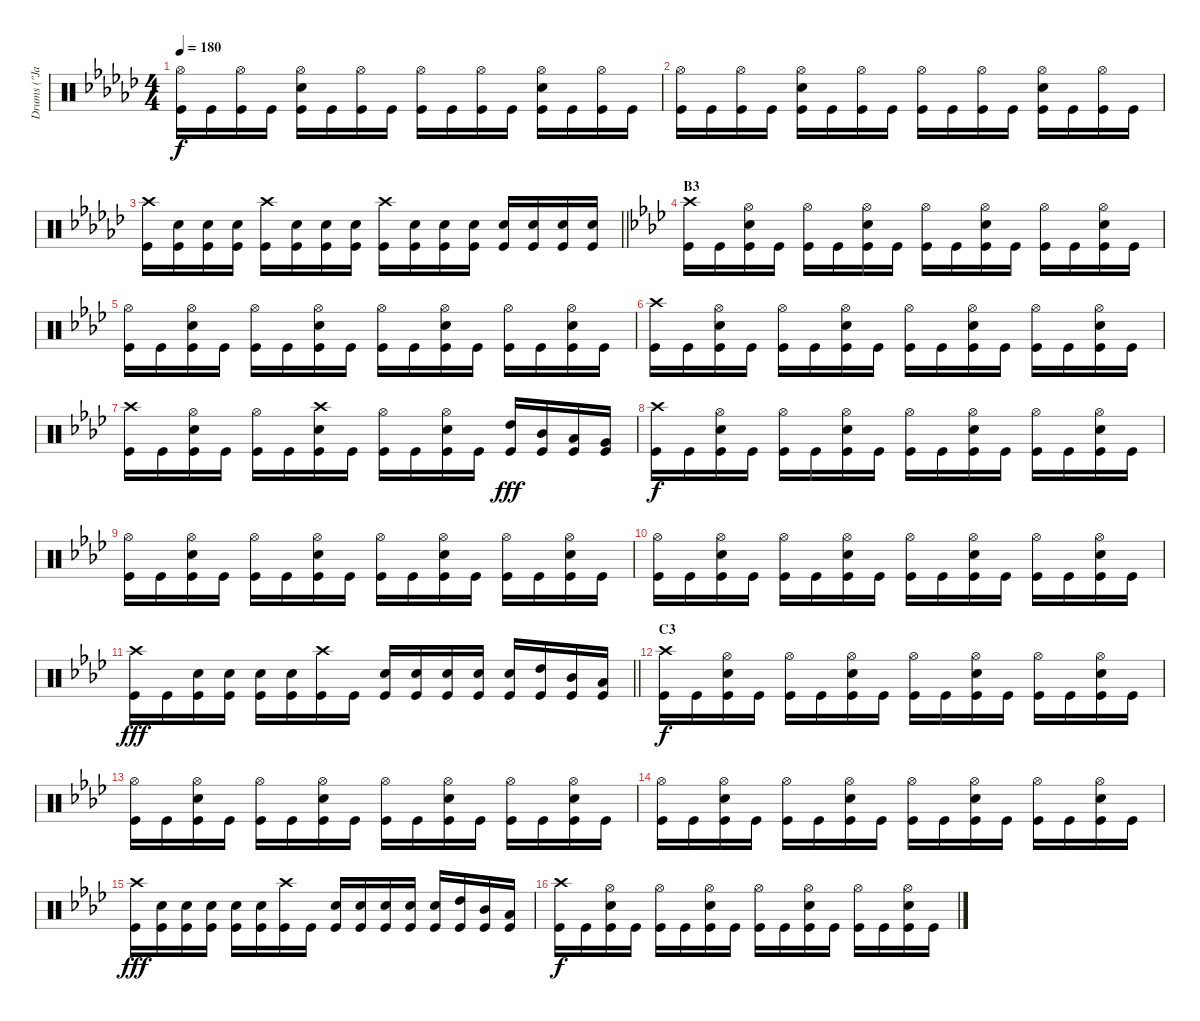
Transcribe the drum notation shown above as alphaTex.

\track ("Drums (\"Jane\")" "Drums (\"Ja") {instrument percussion}
\staff {score}
\articulation defaults
\ts (4 4)
\tempo 180
\clef neutral
\ks gb
("Hi-Hat (open)" "Kick (hit)").16{dy f} "Kick (hit)".16 ("Hi-Hat (open)" "Kick (hit)").16 "Kick (hit)".16 ("Hi-Hat (open)" "Snare (hit) 2" "Kick (hit)").16 "Kick (hit)".16 ("Hi-Hat (open)" "Kick (hit)").16 "Kick (hit)".16 ("Hi-Hat (open)" "Kick (hit)").16 "Kick (hit)".16 ("Hi-Hat (open)" "Kick (hit)").16 "Kick (hit)".16 ("Hi-Hat (open)" "Snare (hit) 2" "Kick (hit)").16 "Kick (hit)".16 ("Hi-Hat (open)" "Kick (hit)").16 "Kick (hit)".16 |
("Hi-Hat (open)" "Kick (hit)").16 "Kick (hit)".16 ("Hi-Hat (open)" "Kick (hit)").16 "Kick (hit)".16 ("Hi-Hat (open)" "Snare (hit) 2" "Kick (hit)").16 "Kick (hit)".16 ("Hi-Hat (open)" "Kick (hit)").16 "Kick (hit)".16 ("Hi-Hat (open)" "Kick (hit)").16 "Kick (hit)".16 ("Hi-Hat (open)" "Kick (hit)").16 "Kick (hit)".16 ("Hi-Hat (open)" "Snare (hit) 2" "Kick (hit)").16 "Kick (hit)".16 ("Hi-Hat (open)" "Kick (hit)").16 "Kick (hit)".16 |
\barLineRight lightlight
("Crash high (hit)" "Kick (hit)").16 ("Snare (hit) 2" "Kick (hit)").16 ("Snare (hit) 2" "Kick (hit)").16 ("Snare (hit) 2" "Kick (hit)").16 ("Crash high (hit)" "Kick (hit)").16 ("Snare (hit) 2" "Kick (hit)").16 ("Snare (hit) 2" "Kick (hit)").16 ("Snare (hit) 2" "Kick (hit)").16 ("Crash high (hit)" "Kick (hit)").16 ("Snare (hit) 2" "Kick (hit)").16 ("Snare (hit) 2" "Kick (hit)").16 ("Snare (hit) 2" "Kick (hit)").16 ("Snare (hit) 2" "Kick (hit)").16 ("Snare (hit) 2" "Kick (hit)").16 ("Snare (hit) 2" "Kick (hit)").16 ("Snare (hit) 2" "Kick (hit)").16 |
\section ("" "B3")
\ks ab
("Crash high (hit)" "Kick (hit)").16 "Kick (hit)".16 ("Hi-Hat (open)" "Snare (hit) 2" "Kick (hit)").16 "Kick (hit)".16 ("Hi-Hat (open)" "Kick (hit)").16 "Kick (hit)".16 ("Hi-Hat (open)" "Snare (hit) 2" "Kick (hit)").16 "Kick (hit)".16 ("Hi-Hat (open)" "Kick (hit)").16 "Kick (hit)".16 ("Hi-Hat (open)" "Snare (hit) 2" "Kick (hit)").16 "Kick (hit)".16 ("Hi-Hat (open)" "Kick (hit)").16 "Kick (hit)".16 ("Hi-Hat (open)" "Snare (hit) 2" "Kick (hit)").16 "Kick (hit)".16 |
("Hi-Hat (open)" "Kick (hit)").16 "Kick (hit)".16 ("Hi-Hat (open)" "Snare (hit) 2" "Kick (hit)").16 "Kick (hit)".16 ("Hi-Hat (open)" "Kick (hit)").16 "Kick (hit)".16 ("Hi-Hat (open)" "Snare (hit) 2" "Kick (hit)").16 "Kick (hit)".16 ("Hi-Hat (open)" "Kick (hit)").16 "Kick (hit)".16 ("Hi-Hat (open)" "Snare (hit) 2" "Kick (hit)").16 "Kick (hit)".16 ("Hi-Hat (open)" "Kick (hit)").16 "Kick (hit)".16 ("Hi-Hat (open)" "Snare (hit) 2" "Kick (hit)").16 "Kick (hit)".16 |
("Crash high (hit)" "Kick (hit)").16 "Kick (hit)".16 ("Hi-Hat (open)" "Snare (hit) 2" "Kick (hit)").16 "Kick (hit)".16 ("Hi-Hat (open)" "Kick (hit)").16 "Kick (hit)".16 ("Hi-Hat (open)" "Snare (hit) 2" "Kick (hit)").16 "Kick (hit)".16 ("Hi-Hat (open)" "Kick (hit)").16 "Kick (hit)".16 ("Hi-Hat (open)" "Snare (hit) 2" "Kick (hit)").16 "Kick (hit)".16 ("Hi-Hat (open)" "Kick (hit)").16 "Kick (hit)".16 ("Hi-Hat (open)" "Snare (hit) 2" "Kick (hit)").16 "Kick (hit)".16 |
("Crash high (hit)" "Kick (hit)").16 "Kick (hit)".16 ("Hi-Hat (open)" "Snare (hit) 2" "Kick (hit)").16 "Kick (hit)".16 ("Hi-Hat (open)" "Kick (hit)").16 "Kick (hit)".16 ("Crash high (hit)" "Snare (hit) 2" "Kick (hit)").16 "Kick (hit)".16 ("Hi-Hat (open)" "Kick (hit)").16 "Kick (hit)".16 ("Hi-Hat (open)" "Snare (hit) 2" "Kick (hit)").16 "Kick (hit)".16 ("High Tom (hit)" "Kick (hit)").16{dy fff} ("Mid Tom (hit)" "Kick (hit)").16 ("Low Tom (hit)" "Kick (hit)").16 ("Very Low Tom (hit)" "Kick (hit)").16 |
("Crash high (hit)" "Kick (hit)").16{dy f} "Kick (hit)".16 ("Hi-Hat (open)" "Snare (hit) 2" "Kick (hit)").16 "Kick (hit)".16 ("Hi-Hat (open)" "Kick (hit)").16 "Kick (hit)".16 ("Hi-Hat (open)" "Snare (hit) 2" "Kick (hit)").16 "Kick (hit)".16 ("Hi-Hat (open)" "Kick (hit)").16 "Kick (hit)".16 ("Hi-Hat (open)" "Snare (hit) 2" "Kick (hit)").16 "Kick (hit)".16 ("Hi-Hat (open)" "Kick (hit)").16 "Kick (hit)".16 ("Hi-Hat (open)" "Snare (hit) 2" "Kick (hit)").16 "Kick (hit)".16 |
("Hi-Hat (open)" "Kick (hit)").16 "Kick (hit)".16 ("Hi-Hat (open)" "Snare (hit) 2" "Kick (hit)").16 "Kick (hit)".16 ("Hi-Hat (open)" "Kick (hit)").16 "Kick (hit)".16 ("Hi-Hat (open)" "Snare (hit) 2" "Kick (hit)").16 "Kick (hit)".16 ("Hi-Hat (open)" "Kick (hit)").16 "Kick (hit)".16 ("Hi-Hat (open)" "Snare (hit) 2" "Kick (hit)").16 "Kick (hit)".16 ("Hi-Hat (open)" "Kick (hit)").16 "Kick (hit)".16 ("Hi-Hat (open)" "Snare (hit) 2" "Kick (hit)").16 "Kick (hit)".16 |
("Hi-Hat (open)" "Kick (hit)").16 "Kick (hit)".16 ("Hi-Hat (open)" "Snare (hit) 2" "Kick (hit)").16 "Kick (hit)".16 ("Hi-Hat (open)" "Kick (hit)").16 "Kick (hit)".16 ("Hi-Hat (open)" "Snare (hit) 2" "Kick (hit)").16 "Kick (hit)".16 ("Hi-Hat (open)" "Kick (hit)").16 "Kick (hit)".16 ("Hi-Hat (open)" "Snare (hit) 2" "Kick (hit)").16 "Kick (hit)".16 ("Hi-Hat (open)" "Kick (hit)").16 "Kick (hit)".16 ("Hi-Hat (open)" "Snare (hit) 2" "Kick (hit)").16 "Kick (hit)".16 |
\barLineRight lightlight
("Crash high (hit)" "Kick (hit)").16{dy fff} "Kick (hit)".16 ("Snare (hit) 2" "Kick (hit)").16 ("Snare (hit) 2" "Kick (hit)").16 ("Snare (hit) 2" "Kick (hit)").16 ("Snare (hit) 2" "Kick (hit)").16 ("Crash high (hit)" "Kick (hit)").16 "Kick (hit)".16 ("Snare (hit) 2" "Kick (hit)").16 ("Snare (hit) 2" "Kick (hit)").16 ("Snare (hit) 2" "Kick (hit)").16 ("Snare (hit) 2" "Kick (hit)").16 ("Snare (hit) 2" "Kick (hit)").16 ("High Tom (hit)" "Kick (hit)").16 ("Mid Tom (hit)" "Kick (hit)").16 ("Low Tom (hit)" "Kick (hit)").16 |
\section ("" "C3")
("Crash high (hit)" "Kick (hit)").16{dy f} "Kick (hit)".16 ("Hi-Hat (open)" "Snare (hit) 2" "Kick (hit)").16 "Kick (hit)".16 ("Hi-Hat (open)" "Kick (hit)").16 "Kick (hit)".16 ("Hi-Hat (open)" "Snare (hit) 2" "Kick (hit)").16 "Kick (hit)".16 ("Hi-Hat (open)" "Kick (hit)").16 "Kick (hit)".16 ("Hi-Hat (open)" "Snare (hit) 2" "Kick (hit)").16 "Kick (hit)".16 ("Hi-Hat (open)" "Kick (hit)").16 "Kick (hit)".16 ("Hi-Hat (open)" "Snare (hit) 2" "Kick (hit)").16 "Kick (hit)".16 |
("Hi-Hat (open)" "Kick (hit)").16 "Kick (hit)".16 ("Hi-Hat (open)" "Snare (hit) 2" "Kick (hit)").16 "Kick (hit)".16 ("Hi-Hat (open)" "Kick (hit)").16 "Kick (hit)".16 ("Hi-Hat (open)" "Snare (hit) 2" "Kick (hit)").16 "Kick (hit)".16 ("Hi-Hat (open)" "Kick (hit)").16 "Kick (hit)".16 ("Hi-Hat (open)" "Snare (hit) 2" "Kick (hit)").16 "Kick (hit)".16 ("Hi-Hat (open)" "Kick (hit)").16 "Kick (hit)".16 ("Hi-Hat (open)" "Snare (hit) 2" "Kick (hit)").16 "Kick (hit)".16 |
("Hi-Hat (open)" "Kick (hit)").16 "Kick (hit)".16 ("Hi-Hat (open)" "Snare (hit) 2" "Kick (hit)").16 "Kick (hit)".16 ("Hi-Hat (open)" "Kick (hit)").16 "Kick (hit)".16 ("Hi-Hat (open)" "Snare (hit) 2" "Kick (hit)").16 "Kick (hit)".16 ("Hi-Hat (open)" "Kick (hit)").16 "Kick (hit)".16 ("Hi-Hat (open)" "Snare (hit) 2" "Kick (hit)").16 "Kick (hit)".16 ("Hi-Hat (open)" "Kick (hit)").16 "Kick (hit)".16 ("Hi-Hat (open)" "Snare (hit) 2" "Kick (hit)").16 "Kick (hit)".16 |
("Crash high (hit)" "Kick (hit)").16{dy fff} ("Snare (hit) 2" "Kick (hit)").16 ("Snare (hit) 2" "Kick (hit)").16 ("Snare (hit) 2" "Kick (hit)").16 ("Snare (hit) 2" "Kick (hit)").16 ("Snare (hit) 2" "Kick (hit)").16 ("Crash high (hit)" "Kick (hit)").16 "Kick (hit)".16 ("Snare (hit) 2" "Kick (hit)").16 ("Snare (hit) 2" "Kick (hit)").16 ("Snare (hit) 2" "Kick (hit)").16 ("Snare (hit) 2" "Kick (hit)").16 ("Snare (hit) 2" "Kick (hit)").16 ("High Tom (hit)" "Kick (hit)").16 ("Mid Tom (hit)" "Kick (hit)").16 ("Low Tom (hit)" "Kick (hit)").16 |
("Crash high (hit)" "Kick (hit)").16{dy f} "Kick (hit)".16 ("Hi-Hat (open)" "Snare (hit) 2" "Kick (hit)").16 "Kick (hit)".16 ("Hi-Hat (open)" "Kick (hit)").16 "Kick (hit)".16 ("Hi-Hat (open)" "Snare (hit) 2" "Kick (hit)").16 "Kick (hit)".16 ("Hi-Hat (open)" "Kick (hit)").16 "Kick (hit)".16 ("Hi-Hat (open)" "Snare (hit) 2" "Kick (hit)").16 "Kick (hit)".16 ("Hi-Hat (open)" "Kick (hit)").16 "Kick (hit)".16 ("Hi-Hat (open)" "Snare (hit) 2" "Kick (hit)").16 "Kick (hit)".16
